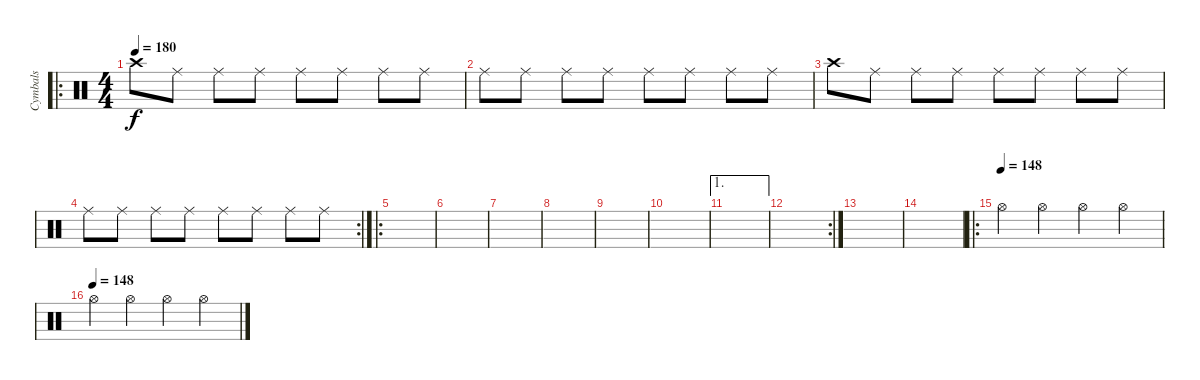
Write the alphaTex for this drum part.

\track ("Cymbals" "Cymbals") {instrument percussion}
\staff {score}
\articulation defaults
\ro
\ts (4 4)
\tempo 180
\clef neutral
\ks c "Crash high (hit)".8{dy f} "Ride (middle)".8 "Ride (middle)".8 "Ride (middle)".8 "Ride (middle)".8 "Ride (middle)".8 "Ride (middle)".8 "Ride (middle)".8
|
"Ride (middle)".8 "Ride (middle)".8 "Ride (middle)".8 "Ride (middle)".8 "Ride (middle)".8 "Ride (middle)".8 "Ride (middle)".8 "Ride (middle)".8 |
"Crash high (hit)".8 "Ride (middle)".8 "Ride (middle)".8 "Ride (middle)".8 "Ride (middle)".8 "Ride (middle)".8 "Ride (middle)".8 "Ride (middle)".8 |
\rc 2 "Ride (middle)".8 "Ride (middle)".8 "Ride (middle)".8 "Ride (middle)".8 "Ride (middle)".8 "Ride (middle)".8 "Ride (middle)".8 "Ride (middle)".8
|
\ro
|
|
|
|
|
|
\ae 1
|
\rc 2
|
|
|
\ro
\tempo (148)
"Hi-Hat (open)".4 "Hi-Hat (open)".4 "Hi-Hat (open)".4 "Hi-Hat (open)".4 |
\tempo (148)
"Hi-Hat (open)".4 "Hi-Hat (open)".4 "Hi-Hat (open)".4 "Hi-Hat (open)".4
